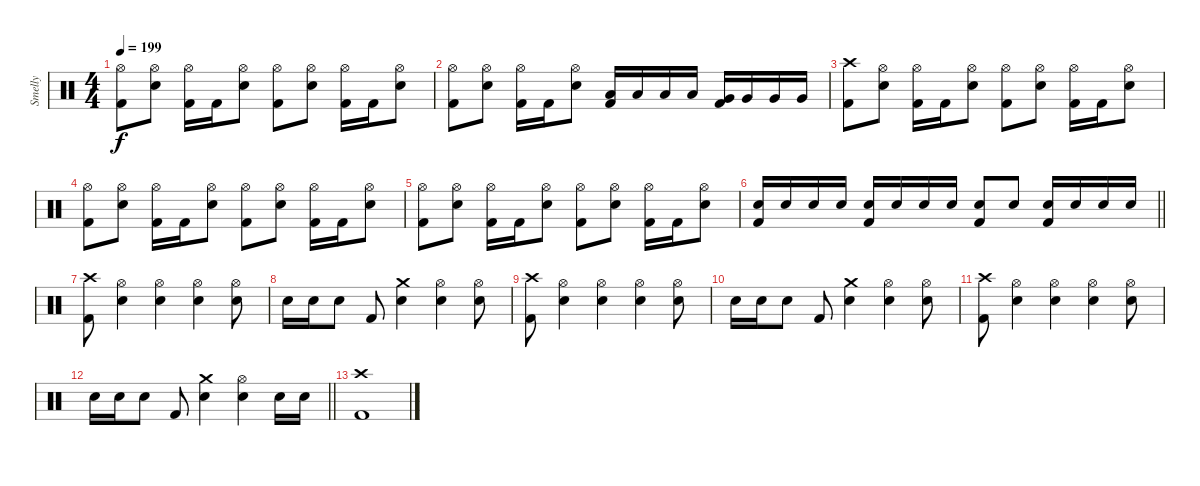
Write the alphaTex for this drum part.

\track ("Smelly" "Smelly") {instrument percussion}
\staff {score}
\articulation defaults
\ts (4 4)
\tempo 199
\clef neutral
\ks c
("Hi-Hat (open)" "Kick (hit) 2").8{dy f} ("Hi-Hat (open)" "Electric Snare (hit)").8 ("Hi-Hat (open)" "Kick (hit) 2").16 "Kick (hit) 2".16 ("Hi-Hat (open)" "Electric Snare (hit)").8 ("Hi-Hat (open)" "Kick (hit) 2").8 ("Hi-Hat (open)" "Electric Snare (hit)").8 ("Hi-Hat (open)" "Kick (hit) 2").16 "Kick (hit) 2".16 ("Hi-Hat (open)" "Electric Snare (hit)").8 |
("Hi-Hat (open)" "Kick (hit) 2").8 ("Hi-Hat (open)" "Electric Snare (hit)").8 ("Hi-Hat (open)" "Kick (hit) 2").16 "Kick (hit) 2".16 ("Hi-Hat (open)" "Electric Snare (hit)").8 ("Low Tom (hit)" "Kick (hit) 2").16 "Low Tom (hit)".16 "Low Tom (hit)".16 "Low Tom (hit)".16 ("Very Low Tom (hit)" "Kick (hit) 2").16 "Very Low Tom (hit)".16 "Very Low Tom (hit)".16 "Very Low Tom (hit)".16 |
("Crash high (hit)" "Kick (hit) 2").8 ("Hi-Hat (open)" "Electric Snare (hit)").8 ("Hi-Hat (open)" "Kick (hit) 2").16 "Kick (hit) 2".16 ("Hi-Hat (open)" "Electric Snare (hit)").8 ("Hi-Hat (open)" "Kick (hit) 2").8 ("Hi-Hat (open)" "Electric Snare (hit)").8 ("Hi-Hat (open)" "Kick (hit) 2").16 "Kick (hit) 2".16 ("Hi-Hat (open)" "Electric Snare (hit)").8 |
("Hi-Hat (open)" "Kick (hit) 2").8 ("Hi-Hat (open)" "Electric Snare (hit)").8 ("Hi-Hat (open)" "Kick (hit) 2").16 "Kick (hit) 2".16 ("Hi-Hat (open)" "Electric Snare (hit)").8 ("Hi-Hat (open)" "Kick (hit) 2").8 ("Hi-Hat (open)" "Electric Snare (hit)").8 ("Hi-Hat (open)" "Kick (hit) 2").16 "Kick (hit) 2".16 ("Hi-Hat (open)" "Electric Snare (hit)").8 |
("Hi-Hat (open)" "Kick (hit) 2").8 ("Hi-Hat (open)" "Electric Snare (hit)").8 ("Hi-Hat (open)" "Kick (hit) 2").16 "Kick (hit) 2".16 ("Hi-Hat (open)" "Electric Snare (hit)").8 ("Hi-Hat (open)" "Kick (hit) 2").8 ("Hi-Hat (open)" "Electric Snare (hit)").8 ("Hi-Hat (open)" "Kick (hit) 2").16 "Kick (hit) 2".16 ("Hi-Hat (open)" "Electric Snare (hit)").8 |
\barLineRight lightlight
("Electric Snare (hit)" "Kick (hit) 2").16 "Electric Snare (hit)".16 "Electric Snare (hit)".16 "Electric Snare (hit)".16 ("Electric Snare (hit)" "Kick (hit) 2").16 "Electric Snare (hit)".16 "Electric Snare (hit)".16 "Electric Snare (hit)".16 ("Electric Snare (hit)" "Kick (hit) 2").8 "Electric Snare (hit)".8 ("Electric Snare (hit)" "Kick (hit) 2").16 "Electric Snare (hit)".16 "Electric Snare (hit)".16 "Electric Snare (hit)".16 |
\section ("" "")
("Crash high (hit)" "Kick (hit) 2").8 ("Hi-Hat (open)" "Electric Snare (hit)").4 ("Hi-Hat (open)" "Electric Snare (hit)").4 ("Hi-Hat (open)" "Electric Snare (hit)").4 ("Hi-Hat (open)" "Electric Snare (hit)").8 |
"Electric Snare (hit)".16 "Electric Snare (hit)".16 "Electric Snare (hit)".8 "Kick (hit) 2".8 ("Crash medium (hit)" "Electric Snare (hit)").4 ("Hi-Hat (open)" "Electric Snare (hit)").4 ("Hi-Hat (open)" "Electric Snare (hit)").8 |
("Crash high (hit)" "Kick (hit) 2").8 ("Hi-Hat (open)" "Electric Snare (hit)").4 ("Hi-Hat (open)" "Electric Snare (hit)").4 ("Hi-Hat (open)" "Electric Snare (hit)").4 ("Hi-Hat (open)" "Electric Snare (hit)").8 |
"Electric Snare (hit)".16 "Electric Snare (hit)".16 "Electric Snare (hit)".8 "Kick (hit) 2".8 ("Crash medium (hit)" "Electric Snare (hit)").4 ("Hi-Hat (open)" "Electric Snare (hit)").4 ("Hi-Hat (open)" "Electric Snare (hit)").8 |
("Crash high (hit)" "Kick (hit) 2").8 ("Hi-Hat (open)" "Electric Snare (hit)").4 ("Hi-Hat (open)" "Electric Snare (hit)").4 ("Hi-Hat (open)" "Electric Snare (hit)").4 ("Hi-Hat (open)" "Electric Snare (hit)").8 |
\barLineRight lightlight "Electric Snare (hit)".16 "Electric Snare (hit)".16 "Electric Snare (hit)".8 "Kick (hit) 2".8
("Crash medium (hit)" "Electric Snare (hit)").4 ("Hi-Hat (open)" "Electric Snare (hit)").4 "Electric Snare (hit)".16 "Electric Snare (hit)".16 |
\section ("" "")
("Crash high (hit)" "Kick (hit) 2").1
